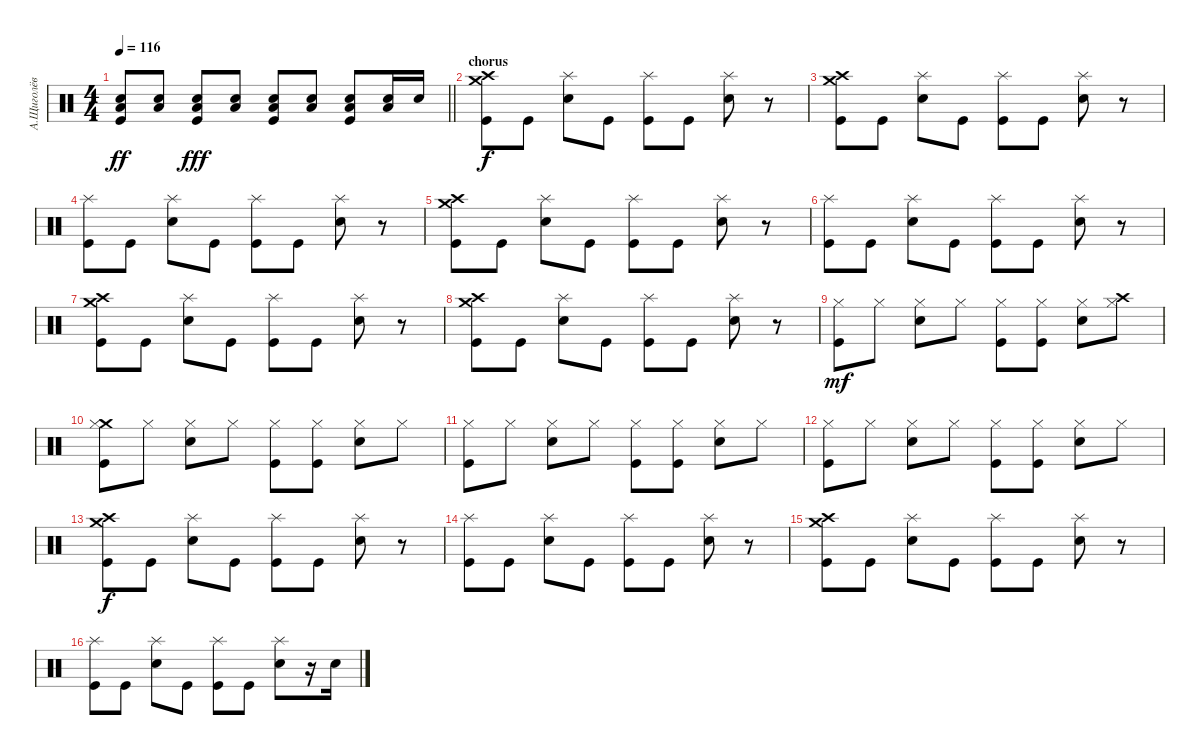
\track ("А.Щиголёв" "А.Щиголёв") {instrument percussion}
\staff {score}
\articulation defaults
\ts (4 4)
\tempo 116
\clef neutral
\barLineRight lightlight
\ks c
("Low Floor Tom (hit)" "Electric Snare (hit)" "Kick (hit)").8{dy ff} ("Low Floor Tom (hit)" "Electric Snare (hit)").8 ("Low Floor Tom (hit)" "Electric Snare (hit)" "Kick (hit)").8{dy fff} ("Low Floor Tom (hit)" "Electric Snare (hit)").8 ("Low Floor Tom (hit)" "Electric Snare (hit)" "Kick (hit)").8 ("Low Floor Tom (hit)" "Electric Snare (hit)").8 ("Low Floor Tom (hit)" "Electric Snare (hit)" "Kick (hit)").8 ("Electric Snare (hit)" "Low Floor Tom (hit)").16 "Electric Snare (hit)".16 |
\section ("" "chorus")
("Crash medium (hit)" "Crash high (hit)" "Kick (hit)").8{dy f} "Kick (hit)".8 ("Splash (hit)" "Electric Snare (hit)").8 "Kick (hit)".8 ("Splash (hit)" "Kick (hit)").8 "Kick (hit)".8 ("Splash (hit)" "Electric Snare (hit)").8 r.8 |
("Crash medium (hit)" "Crash high (hit)" "Kick (hit)").8 "Kick (hit)".8 ("Splash (hit)" "Electric Snare (hit)").8 "Kick (hit)".8 ("Splash (hit)" "Kick (hit)").8 "Kick (hit)".8 ("Splash (hit)" "Electric Snare (hit)").8 r.8 |
("Splash (hit)" "Kick (hit)").8 "Kick (hit)".8 ("Splash (hit)" "Electric Snare (hit)").8 "Kick (hit)".8 ("Splash (hit)" "Kick (hit)").8 "Kick (hit)".8 ("Splash (hit)" "Electric Snare (hit)").8 r.8 |
("Crash medium (hit)" "Crash high (hit)" "Kick (hit)").8 "Kick (hit)".8 ("Splash (hit)" "Electric Snare (hit)").8 "Kick (hit)".8 ("Splash (hit)" "Kick (hit)").8 "Kick (hit)".8 ("Splash (hit)" "Electric Snare (hit)").8 r.8 |
("Splash (hit)" "Kick (hit)").8 "Kick (hit)".8 ("Splash (hit)" "Electric Snare (hit)").8 "Kick (hit)".8 ("Splash (hit)" "Kick (hit)").8 "Kick (hit)".8 ("Splash (hit)" "Electric Snare (hit)").8 r.8 |
("Crash medium (hit)" "Crash high (hit)" "Kick (hit)").8 "Kick (hit)".8 ("Splash (hit)" "Electric Snare (hit)").8 "Kick (hit)".8 ("Splash (hit)" "Kick (hit)").8 "Kick (hit)".8 ("Splash (hit)" "Electric Snare (hit)").8 r.8 |
("Crash medium (hit)" "Crash high (hit)" "Kick (hit)").8 "Kick (hit)".8 ("Splash (hit)" "Electric Snare (hit)").8 "Kick (hit)".8 ("Splash (hit)" "Kick (hit)").8 "Kick (hit)".8 ("Splash (hit)" "Electric Snare (hit)").8 r.8 |
("Hi-Hat (closed)" "Kick (hit)").8{dy mf} "Hi-Hat (closed)".8 ("Hi-Hat (closed)" "Electric Snare (hit)").8 "Hi-Hat (closed)".8 ("Hi-Hat (closed)" "Kick (hit)").8 ("Hi-Hat (closed)" "Kick (hit)").8 ("Hi-Hat (closed)" "Electric Snare (hit)").8 ("Crash high (hit)" "Hi-Hat (closed)").8 |
("Crash medium (hit)" "Hi-Hat (closed)" "Kick (hit)").8 "Hi-Hat (closed)".8 ("Hi-Hat (closed)" "Electric Snare (hit)").8 "Hi-Hat (closed)".8 ("Hi-Hat (closed)" "Kick (hit)").8 ("Hi-Hat (closed)" "Kick (hit)").8 ("Hi-Hat (closed)" "Electric Snare (hit)").8 "Hi-Hat (closed)".8 |
("Hi-Hat (closed)" "Kick (hit)").8 "Hi-Hat (closed)".8 ("Hi-Hat (closed)" "Electric Snare (hit)").8 "Hi-Hat (closed)".8 ("Hi-Hat (closed)" "Kick (hit)").8 ("Hi-Hat (closed)" "Kick (hit)").8 ("Hi-Hat (closed)" "Electric Snare (hit)").8 "Hi-Hat (closed)".8 |
("Hi-Hat (closed)" "Kick (hit)").8 "Hi-Hat (closed)".8 ("Hi-Hat (closed)" "Electric Snare (hit)").8 "Hi-Hat (closed)".8 ("Hi-Hat (closed)" "Kick (hit)").8 ("Hi-Hat (closed)" "Kick (hit)").8 ("Hi-Hat (closed)" "Electric Snare (hit)").8 "Hi-Hat (closed)".8 |
("Crash medium (hit)" "Crash high (hit)" "Kick (hit)").8{dy f} "Kick (hit)".8 ("Splash (hit)" "Electric Snare (hit)").8 "Kick (hit)".8 ("Splash (hit)" "Kick (hit)").8 "Kick (hit)".8 ("Splash (hit)" "Electric Snare (hit)").8 r.8 |
("Splash (hit)" "Kick (hit)").8 "Kick (hit)".8 ("Splash (hit)" "Electric Snare (hit)").8 "Kick (hit)".8 ("Splash (hit)" "Kick (hit)").8 "Kick (hit)".8 ("Splash (hit)" "Electric Snare (hit)").8 r.8 |
("Crash medium (hit)" "Crash high (hit)" "Kick (hit)").8 "Kick (hit)".8 ("Splash (hit)" "Electric Snare (hit)").8 "Kick (hit)".8 ("Splash (hit)" "Kick (hit)").8 "Kick (hit)".8 ("Splash (hit)" "Electric Snare (hit)").8 r.8 |
("Splash (hit)" "Kick (hit)").8 "Kick (hit)".8 ("Splash (hit)" "Electric Snare (hit)").8 "Kick (hit)".8 ("Splash (hit)" "Kick (hit)").8 "Kick (hit)".8 ("Splash (hit)" "Electric Snare (hit)").8 r.16 "Electric Snare (hit)".16
